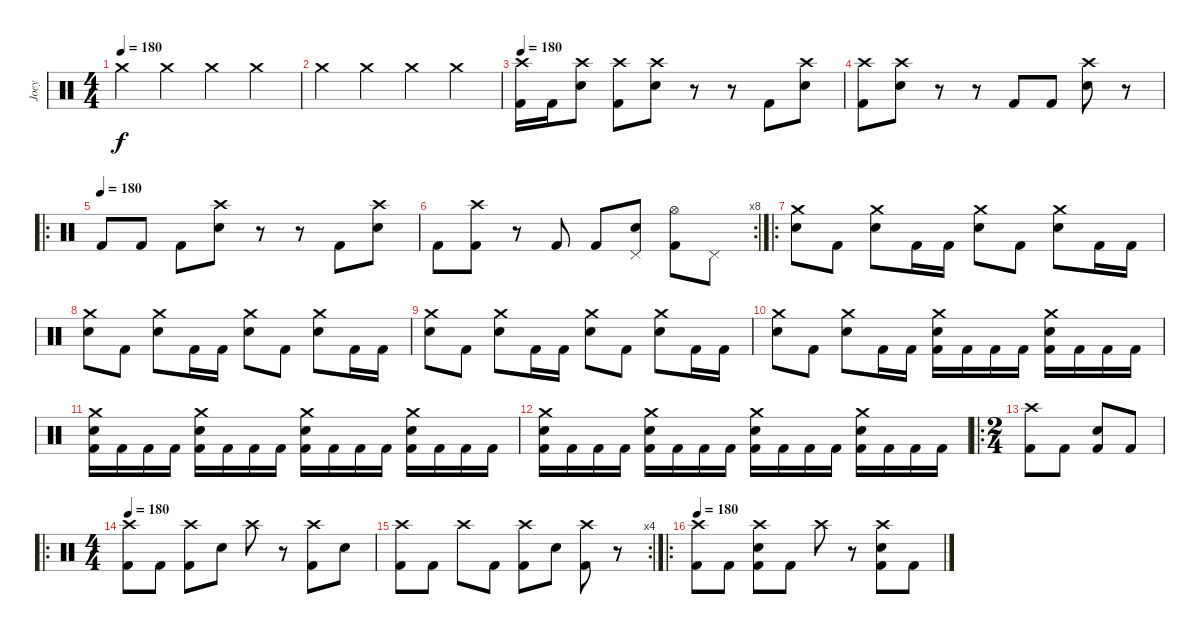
\track ("Joey" "Joey") {instrument percussion}
\staff {score}
\articulation defaults
\ts (4 4)
\tempo 180
\clef neutral
\ks c "Crash medium (hit)".4{dy f} "Crash medium (hit)".4 "Crash medium (hit)".4 "Crash medium (hit)".4
|
"Crash medium (hit)".4 "Crash medium (hit)".4 "Crash medium (hit)".4 "Crash medium (hit)".4 |
\tempo 180
("Crash high (hit)" "Kick (hit) 2").16 "Kick (hit) 2".16 ("Crash high (hit)" "Electric Snare (hit)").8 ("Crash high (hit)" "Kick (hit) 2").8 ("Crash high (hit)" "Electric Snare (hit)").8 r.8 r.8 "Kick (hit) 2".8 ("Crash high (hit)" "Electric Snare (hit)").8 |
("Crash high (hit)" "Kick (hit) 2").8 ("Crash high (hit)" "Electric Snare (hit)").8 r.8 r.8 "Kick (hit) 2".8 "Kick (hit) 2".8 ("Crash high (hit)" "Electric Snare (hit)").8 r.8 |
\ro
\tempo (180)
"Kick (hit) 2".8 "Kick (hit) 2".8 "Kick (hit) 2".8 ("Crash high (hit)" "Electric Snare (hit)").8 r.8 r.8 "Kick (hit) 2".8 ("Crash high (hit)" "Electric Snare (hit)").8 |
\rc 8 "Kick (hit) 2".8
("Crash high (hit)" "Kick (hit) 2").8 r.8 "Kick (hit) 2".8 "Kick (hit) 2".8 ("Pedal Hi-Hat (hit)" "Electric Snare (hit)").8 ("Hi-Hat (open)" "Kick (hit) 2").8 "Pedal Hi-Hat (hit)".8 |
\ro
("Crash medium (hit)" "Electric Snare (hit)").8 "Kick (hit) 2".8 ("Crash medium (hit)" "Electric Snare (hit)").8 "Kick (hit) 2".16 "Kick (hit) 2".16 ("Crash medium (hit)" "Electric Snare (hit)").8 "Kick (hit) 2".8 ("Crash medium (hit)" "Electric Snare (hit)").8 "Kick (hit) 2".16 "Kick (hit) 2".16 |
("Crash medium (hit)" "Electric Snare (hit)").8 "Kick (hit) 2".8 ("Crash medium (hit)" "Electric Snare (hit)").8 "Kick (hit) 2".16 "Kick (hit) 2".16 ("Crash medium (hit)" "Electric Snare (hit)").8 "Kick (hit) 2".8 ("Crash medium (hit)" "Electric Snare (hit)").8 "Kick (hit) 2".16 "Kick (hit) 2".16 |
("Crash medium (hit)" "Electric Snare (hit)").8 "Kick (hit) 2".8 ("Crash medium (hit)" "Electric Snare (hit)").8 "Kick (hit) 2".16 "Kick (hit) 2".16 ("Crash medium (hit)" "Electric Snare (hit)").8 "Kick (hit) 2".8 ("Crash medium (hit)" "Electric Snare (hit)").8 "Kick (hit) 2".16 "Kick (hit) 2".16 |
("Crash medium (hit)" "Electric Snare (hit)").8 "Kick (hit) 2".8 ("Crash medium (hit)" "Electric Snare (hit)").8 "Kick (hit) 2".16 "Kick (hit) 2".16 ("Crash medium (hit)" "Electric Snare (hit)" "Kick (hit) 2").16 "Kick (hit) 2".16 "Kick (hit) 2".16 "Kick (hit) 2".16 ("Crash medium (hit)" "Electric Snare (hit)" "Kick (hit) 2").16 "Kick (hit) 2".16 "Kick (hit) 2".16 "Kick (hit) 2".16 |
("Crash medium (hit)" "Electric Snare (hit)" "Kick (hit) 2").16 "Kick (hit) 2".16 "Kick (hit) 2".16 "Kick (hit) 2".16 ("Crash medium (hit)" "Electric Snare (hit)" "Kick (hit) 2").16 "Kick (hit) 2".16 "Kick (hit) 2".16 "Kick (hit) 2".16 ("Crash medium (hit)" "Electric Snare (hit)" "Kick (hit) 2").16 "Kick (hit) 2".16 "Kick (hit) 2".16 "Kick (hit) 2".16 ("Crash medium (hit)" "Electric Snare (hit)" "Kick (hit) 2").16 "Kick (hit) 2".16 "Kick (hit) 2".16 "Kick (hit) 2".16 |
("Crash medium (hit)" "Electric Snare (hit)" "Kick (hit) 2").16 "Kick (hit) 2".16 "Kick (hit) 2".16 "Kick (hit) 2".16 ("Crash medium (hit)" "Electric Snare (hit)" "Kick (hit) 2").16 "Kick (hit) 2".16 "Kick (hit) 2".16 "Kick (hit) 2".16 ("Crash medium (hit)" "Electric Snare (hit)" "Kick (hit) 2").16 "Kick (hit) 2".16 "Kick (hit) 2".16 "Kick (hit) 2".16 ("Crash medium (hit)" "Electric Snare (hit)" "Kick (hit) 2").16 "Kick (hit) 2".16 "Kick (hit) 2".16 "Kick (hit) 2".16 |
\ro
\ts (2 4)
("Crash high (hit)" "Kick (hit) 2").8 "Kick (hit) 2".8 ("Electric Snare (hit)" "Kick (hit) 2").8 "Kick (hit) 2".8 |
\ro
\ts (4 4)
\tempo 180
("Crash high (hit)" "Kick (hit) 2").8 "Kick (hit) 2".8 ("Crash high (hit)" "Kick (hit) 2").8 "Electric Snare (hit)".8 "Crash high (hit)".8 r.8 ("Crash high (hit)" "Kick (hit) 2").8 "Electric Snare (hit)".8 |
\rc 4
("Crash high (hit)" "Kick (hit) 2").8 "Kick (hit) 2".8 "Crash high (hit)".8 "Kick (hit) 2".8 ("Crash high (hit)" "Kick (hit) 2").8 "Electric Snare (hit)".8 ("Crash high (hit)" "Kick (hit) 2").8 r.8 |
\ro
\tempo 180
("Crash high (hit)" "Kick (hit) 2").8 "Kick (hit) 2".8 ("Crash high (hit)" "Electric Snare (hit)" "Kick (hit) 2").8 "Kick (hit) 2".8 "Crash high (hit)".8 r.8 ("Crash high (hit)" "Electric Snare (hit)" "Kick (hit) 2").8 "Kick (hit) 2".8
